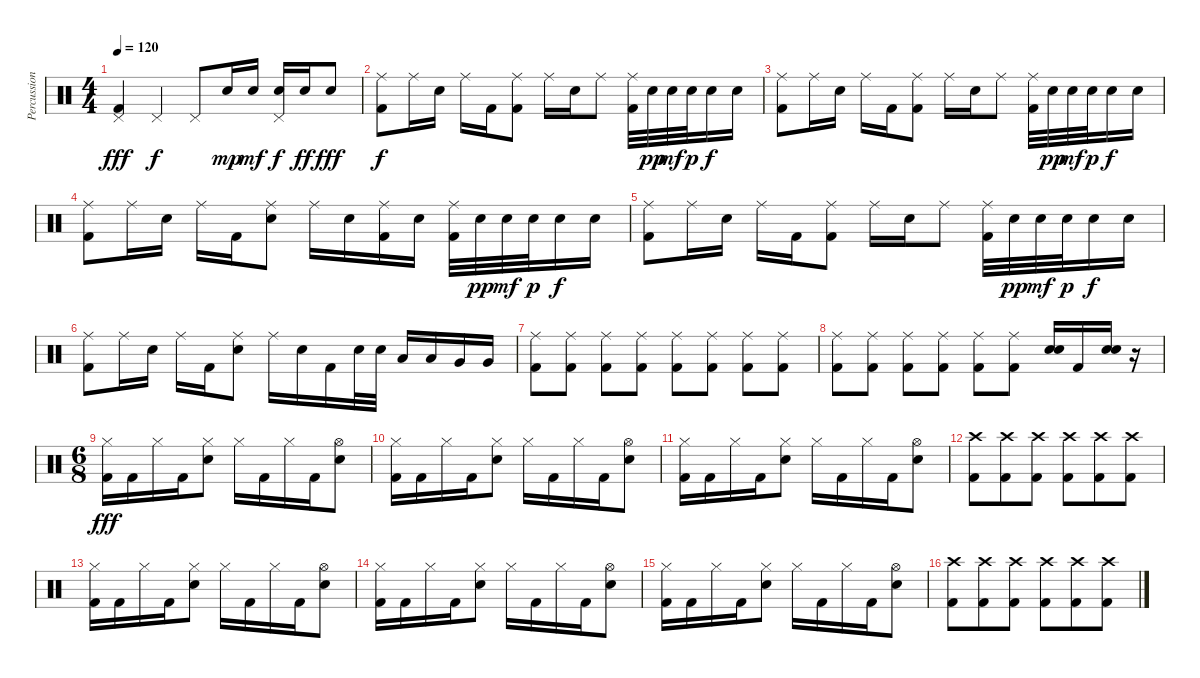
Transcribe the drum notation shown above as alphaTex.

\track ("Percussion" "Percussion") {instrument percussion}
\staff {score}
\articulation defaults
\ts (4 4)
\tempo 120
\clef neutral
\ks c
("Pedal Hi-Hat (hit)" "Kick (hit) 2").4{dy fff} "Pedal Hi-Hat (hit)".4{dy f} "Pedal Hi-Hat (hit)".8 "Electric Snare (hit)".16{dy mp} "Electric Snare (hit)".16{dy mf} ("Pedal Hi-Hat (hit)" "Electric Snare (hit)").16{dy f} "Electric Snare (hit)".16{dy ff} "Electric Snare (hit)".8{dy fff} |
("Ride (middle)" "Kick (hit) 2").8{dy f} "Ride (middle)".16 "Electric Snare (hit)".16 "Ride (middle)".16 "Kick (hit) 2".16 ("Ride (middle)" "Kick (hit) 2").8 "Ride (middle)".16 "Electric Snare (hit)".16 "Ride (middle)".8 ("Ride (middle)" "Kick (hit) 2").32 "Electric Snare (hit)".32{dy pp} "Electric Snare (hit)".32{dy mf} "Electric Snare (hit)".32{dy p} "Electric Snare (hit)".16{dy f} "Electric Snare (hit)".16 |
("Ride (middle)" "Kick (hit) 2").8 "Ride (middle)".16 "Electric Snare (hit)".16 "Ride (middle)".16 "Kick (hit) 2".16 ("Ride (middle)" "Kick (hit) 2").8 "Ride (middle)".16 "Electric Snare (hit)".16 "Ride (middle)".8 ("Ride (middle)" "Kick (hit) 2").32 "Electric Snare (hit)".32{dy pp} "Electric Snare (hit)".32{dy mf} "Electric Snare (hit)".32{dy p} "Electric Snare (hit)".16{dy f} "Electric Snare (hit)".16 |
("Ride (middle)" "Kick (hit) 2").8 "Ride (middle)".16 "Electric Snare (hit)".16 "Ride (middle)".16 "Kick (hit) 2".16 ("Ride (middle)" "Electric Snare (hit)").8 "Ride (middle)".16 "Electric Snare (hit)".16 ("Ride (middle)" "Kick (hit) 2").16 "Electric Snare (hit)".16 ("Ride (middle)" "Kick (hit) 2").32 "Electric Snare (hit)".32{dy pp} "Electric Snare (hit)".32{dy mf} "Electric Snare (hit)".32{dy p} "Electric Snare (hit)".16{dy f} "Electric Snare (hit)".16 |
("Ride (middle)" "Kick (hit) 2").8 "Ride (middle)".16 "Electric Snare (hit)".16 "Ride (middle)".16 "Kick (hit) 2".16 ("Ride (middle)" "Kick (hit) 2").8 "Ride (middle)".16 "Electric Snare (hit)".16 "Ride (middle)".8 ("Ride (middle)" "Kick (hit) 2").32 "Electric Snare (hit)".32{dy pp} "Electric Snare (hit)".32{dy mf} "Electric Snare (hit)".32{dy p} "Electric Snare (hit)".16{dy f} "Electric Snare (hit)".16 |
("Ride (middle)" "Kick (hit) 2").8 "Ride (middle)".16 "Electric Snare (hit)".16 "Ride (middle)".16 "Kick (hit) 2".16 ("Ride (middle)" "Electric Snare (hit)").8 "Ride (middle)".16 "Electric Snare (hit)".16 "Kick (hit) 2".16 "Electric Snare (hit)".32 "Electric Snare (hit)".32 "Low Tom (hit)".16 "Low Tom (hit)".16 "Very Low Tom (hit)".16 "Very Low Tom (hit)".16 |
("Ride (middle)" "Kick (hit) 2").8 ("Ride (middle)" "Kick (hit) 2").8 ("Ride (middle)" "Kick (hit) 2").8 ("Ride (middle)" "Kick (hit) 2").8 ("Ride (middle)" "Kick (hit) 2").8 ("Ride (middle)" "Kick (hit) 2").8 ("Ride (middle)" "Kick (hit) 2").8 ("Ride (middle)" "Kick (hit) 2").8 |
("Ride (middle)" "Kick (hit) 2").8 ("Ride (middle)" "Kick (hit) 2").8 ("Ride (middle)" "Kick (hit) 2").8 ("Ride (middle)" "Kick (hit) 2").8 ("Ride (middle)" "Kick (hit) 2").8 ("Ride (middle)" "Kick (hit) 2").8 ("Electric Snare (hit)" "Electric Snare (hit)").16 "Kick (hit) 2".16 ("Electric Snare (hit)" "Electric Snare (hit)").16 r.16 |
\ts (6 8)
("Hi-Hat (closed)" "Kick (hit) 2").16{dy fff} "Kick (hit) 2".16 "Hi-Hat (closed)".16 "Kick (hit) 2".16 ("Hi-Hat (closed)" "Electric Snare (hit)").8 "Hi-Hat (closed)".16 "Kick (hit) 2".16 "Hi-Hat (closed)".16 "Kick (hit) 2".16 ("Hi-Hat (open)" "Electric Snare (hit)").8 |
("Hi-Hat (closed)" "Kick (hit) 2").16 "Kick (hit) 2".16 "Hi-Hat (closed)".16 "Kick (hit) 2".16 ("Hi-Hat (closed)" "Electric Snare (hit)").8 "Hi-Hat (closed)".16 "Kick (hit) 2".16 "Hi-Hat (closed)".16 "Kick (hit) 2".16 ("Hi-Hat (open)" "Electric Snare (hit)").8 |
("Hi-Hat (closed)" "Kick (hit) 2").16 "Kick (hit) 2".16 "Hi-Hat (closed)".16 "Kick (hit) 2".16 ("Hi-Hat (closed)" "Electric Snare (hit)").8 "Hi-Hat (closed)".16 "Kick (hit) 2".16 "Hi-Hat (closed)".16 "Kick (hit) 2".16 ("Hi-Hat (open)" "Electric Snare (hit)").8 |
("Crash high (hit)" "Kick (hit) 2").8 ("Crash high (hit)" "Kick (hit) 2").8 ("Crash high (hit)" "Kick (hit) 2").8 ("Crash high (hit)" "Kick (hit) 2").8 ("Crash high (hit)" "Kick (hit) 2").8 ("Crash high (hit)" "Kick (hit) 2").8 |
("Hi-Hat (closed)" "Kick (hit) 2").16 "Kick (hit) 2".16 "Hi-Hat (closed)".16 "Kick (hit) 2".16 ("Hi-Hat (closed)" "Electric Snare (hit)").8 "Hi-Hat (closed)".16 "Kick (hit) 2".16 "Hi-Hat (closed)".16 "Kick (hit) 2".16 ("Hi-Hat (open)" "Electric Snare (hit)").8 |
("Hi-Hat (closed)" "Kick (hit) 2").16 "Kick (hit) 2".16 "Hi-Hat (closed)".16 "Kick (hit) 2".16 ("Hi-Hat (closed)" "Electric Snare (hit)").8 "Hi-Hat (closed)".16 "Kick (hit) 2".16 "Hi-Hat (closed)".16 "Kick (hit) 2".16 ("Hi-Hat (open)" "Electric Snare (hit)").8 |
("Hi-Hat (closed)" "Kick (hit) 2").16 "Kick (hit) 2".16 "Hi-Hat (closed)".16 "Kick (hit) 2".16 ("Hi-Hat (closed)" "Electric Snare (hit)").8 "Hi-Hat (closed)".16 "Kick (hit) 2".16 "Hi-Hat (closed)".16 "Kick (hit) 2".16 ("Hi-Hat (open)" "Electric Snare (hit)").8 |
("Crash high (hit)" "Kick (hit) 2").8 ("Crash high (hit)" "Kick (hit) 2").8 ("Crash high (hit)" "Kick (hit) 2").8 ("Crash high (hit)" "Kick (hit) 2").8 ("Crash high (hit)" "Kick (hit) 2").8 ("Crash high (hit)" "Kick (hit) 2").8
